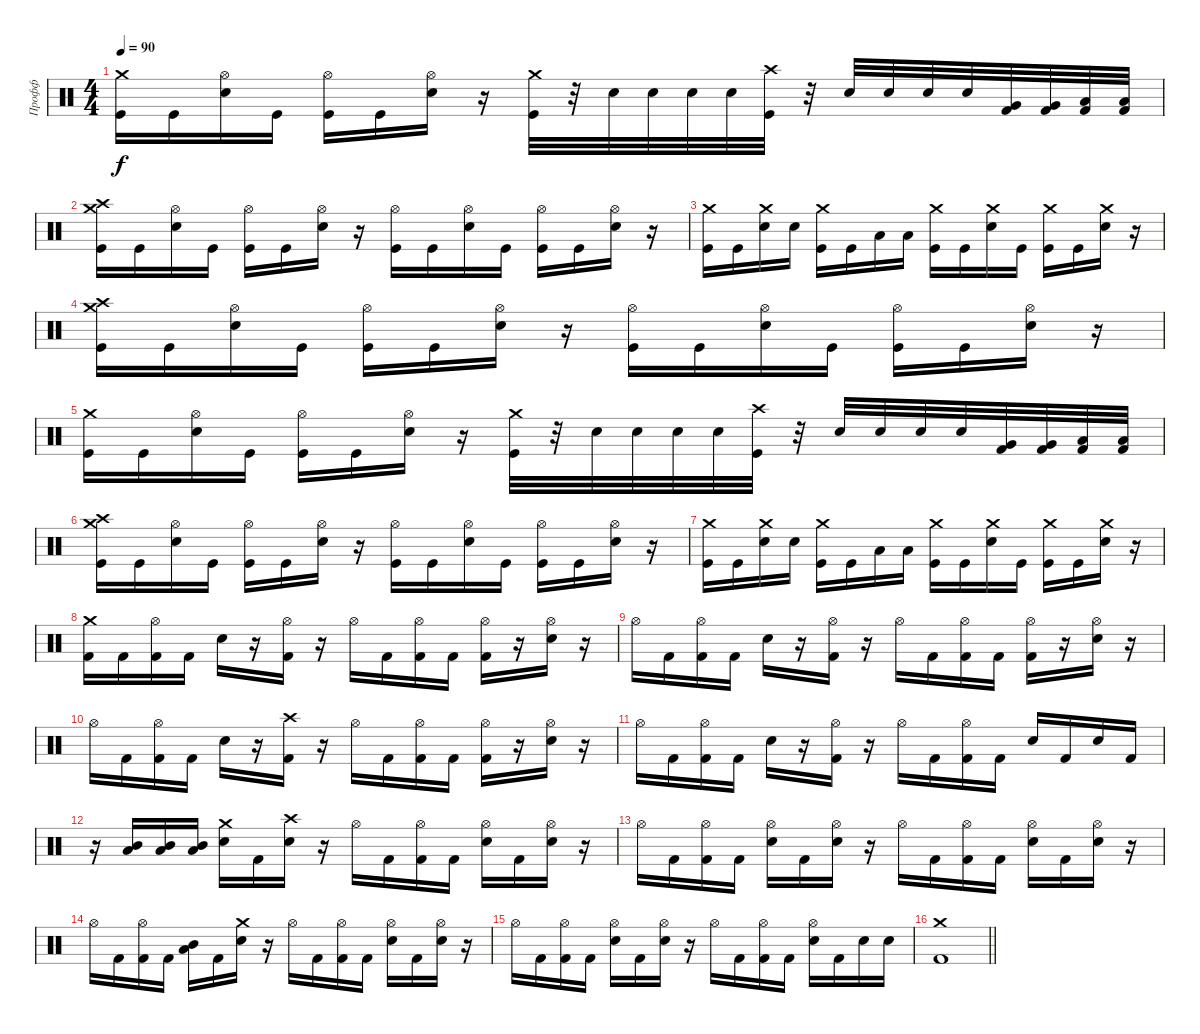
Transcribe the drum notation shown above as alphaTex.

\track ("Профф" "Профф") {instrument percussion}
\staff {score}
\articulation defaults
\ts (4 4)
\tempo 90
\clef neutral
\ks c
("Kick (hit)" "Crash medium (hit)").16{dy f} "Kick (hit)".16 ("Electric Snare (hit)" "Hi-Hat (open)").16 "Kick (hit)".16 ("Kick (hit)" "Hi-Hat (open)").16 "Kick (hit)".16 ("Electric Snare (hit)" "Hi-Hat (open)").16 r.16 ("Kick (hit)" "Crash medium (hit)").32 r.32 "Electric Snare (hit)".32 "Electric Snare (hit)".32 "Electric Snare (hit)".32 "Electric Snare (hit)".32 ("Kick (hit)" "Crash high (hit)").32 r.32 "Electric Snare (hit)".32 "Electric Snare (hit)".32 "Electric Snare (hit)".32 "Electric Snare (hit)".32 ("Very Low Tom (hit)" "Kick (hit) 2").32 ("Very Low Tom (hit)" "Kick (hit) 2").32 ("Low Floor Tom (hit)" "Kick (hit) 2").32 ("Low Floor Tom (hit)" "Kick (hit) 2").32 |
("Kick (hit)" "Crash high (hit)" "Crash medium (hit)").16 "Kick (hit)".16 ("Electric Snare (hit)" "Hi-Hat (open)").16 "Kick (hit)".16 ("Kick (hit)" "Hi-Hat (open)").16 "Kick (hit)".16 ("Electric Snare (hit)" "Hi-Hat (open)").16 r.16 ("Kick (hit)" "Hi-Hat (open)").16 "Kick (hit)".16 ("Electric Snare (hit)" "Hi-Hat (open)").16 "Kick (hit)".16 ("Kick (hit)" "Hi-Hat (open)").16 "Kick (hit)".16 ("Electric Snare (hit)" "Hi-Hat (open)").16 r.16 |
("Kick (hit)" "Crash medium (hit)").16 "Kick (hit)".16 ("Electric Snare (hit)" "Crash medium (hit)").16 "Electric Snare (hit)".16 ("Kick (hit)" "Crash medium (hit)").16 "Kick (hit)".16 "Low Tom (hit)".16 "Low Tom (hit)".16 ("Kick (hit)" "Crash medium (hit)").16 "Kick (hit)".16 ("Electric Snare (hit)" "Crash medium (hit)").16 "Kick (hit)".16 ("Kick (hit)" "Crash medium (hit)").16 "Kick (hit)".16 ("Electric Snare (hit)" "Crash medium (hit)").16 r.16 |
("Kick (hit)" "Crash high (hit)" "Crash medium (hit)").16 "Kick (hit)".16 ("Electric Snare (hit)" "Hi-Hat (open)").16 "Kick (hit)".16 ("Kick (hit)" "Hi-Hat (open)").16 "Kick (hit)".16 ("Electric Snare (hit)" "Hi-Hat (open)").16 r.16 ("Kick (hit)" "Hi-Hat (open)").16 "Kick (hit)".16 ("Electric Snare (hit)" "Hi-Hat (open)").16 "Kick (hit)".16 ("Kick (hit)" "Hi-Hat (open)").16 "Kick (hit)".16 ("Electric Snare (hit)" "Hi-Hat (open)").16 r.16 |
("Kick (hit)" "Crash medium (hit)").16 "Kick (hit)".16 ("Electric Snare (hit)" "Hi-Hat (open)").16 "Kick (hit)".16 ("Kick (hit)" "Hi-Hat (open)").16 "Kick (hit)".16 ("Electric Snare (hit)" "Hi-Hat (open)").16 r.16 ("Kick (hit)" "Crash medium (hit)").32 r.32 "Electric Snare (hit)".32 "Electric Snare (hit)".32 "Electric Snare (hit)".32 "Electric Snare (hit)".32 ("Kick (hit)" "Crash high (hit)").32 r.32 "Electric Snare (hit)".32 "Electric Snare (hit)".32 "Electric Snare (hit)".32 "Electric Snare (hit)".32 ("Very Low Tom (hit)" "Kick (hit) 2").32 ("Very Low Tom (hit)" "Kick (hit) 2").32 ("Low Floor Tom (hit)" "Kick (hit) 2").32 ("Low Floor Tom (hit)" "Kick (hit) 2").32 |
("Kick (hit)" "Crash high (hit)" "Crash medium (hit)").16 "Kick (hit)".16 ("Electric Snare (hit)" "Hi-Hat (open)").16 "Kick (hit)".16 ("Kick (hit)" "Hi-Hat (open)").16 "Kick (hit)".16 ("Electric Snare (hit)" "Hi-Hat (open)").16 r.16 ("Kick (hit)" "Hi-Hat (open)").16 "Kick (hit)".16 ("Electric Snare (hit)" "Hi-Hat (open)").16 "Kick (hit)".16 ("Kick (hit)" "Hi-Hat (open)").16 "Kick (hit)".16 ("Electric Snare (hit)" "Hi-Hat (open)").16 r.16 |
("Kick (hit)" "Crash medium (hit)").16 "Kick (hit)".16 ("Electric Snare (hit)" "Crash medium (hit)").16 "Electric Snare (hit)".16 ("Kick (hit)" "Crash medium (hit)").16 "Kick (hit)".16 "Low Tom (hit)".16 "Low Tom (hit)".16 ("Kick (hit)" "Crash medium (hit)").16 "Kick (hit)".16 ("Electric Snare (hit)" "Crash medium (hit)").16 "Kick (hit)".16 ("Kick (hit)" "Crash medium (hit)").16 "Kick (hit)".16 ("Electric Snare (hit)" "Crash medium (hit)").16 r.16 |
("Kick (hit) 2" "Crash medium (hit)").16 "Kick (hit) 2".16 ("Kick (hit) 2" "Hi-Hat (open)").16 "Kick (hit) 2".16 "Electric Snare (hit)".16 r.16 ("Kick (hit) 2" "Hi-Hat (open)").16 r.16 "Hi-Hat (open)".16 "Kick (hit) 2".16 ("Kick (hit) 2" "Hi-Hat (open)").16 "Kick (hit) 2".16 ("Kick (hit) 2" "Hi-Hat (open)").16 r.16 ("Electric Snare (hit)" "Hi-Hat (open)").16 r.16 |
"Hi-Hat (open)".16 "Kick (hit) 2".16 ("Kick (hit) 2" "Hi-Hat (open)").16 "Kick (hit) 2".16 "Electric Snare (hit)".16 r.16 ("Kick (hit) 2" "Hi-Hat (open)").16 r.16 "Hi-Hat (open)".16 "Kick (hit) 2".16 ("Kick (hit) 2" "Hi-Hat (open)").16 "Kick (hit) 2".16 ("Kick (hit) 2" "Hi-Hat (open)").16 r.16 ("Electric Snare (hit)" "Hi-Hat (open)").16 r.16 |
"Hi-Hat (open)".16 "Kick (hit) 2".16 ("Kick (hit) 2" "Hi-Hat (open)").16 "Kick (hit) 2".16 "Electric Snare (hit)".16 r.16 ("Kick (hit) 2" "Crash high (hit)").16 r.16 "Hi-Hat (open)".16 "Kick (hit) 2".16 ("Kick (hit) 2" "Hi-Hat (open)").16 "Kick (hit) 2".16 ("Kick (hit) 2" "Hi-Hat (open)").16 r.16 ("Electric Snare (hit)" "Hi-Hat (open)").16 r.16 |
"Hi-Hat (open)".16 "Kick (hit) 2".16 ("Kick (hit) 2" "Hi-Hat (open)").16 "Kick (hit) 2".16 "Electric Snare (hit)".16 r.16 ("Kick (hit) 2" "Hi-Hat (open)").16 r.16 "Hi-Hat (open)".16 "Kick (hit) 2".16 ("Kick (hit) 2" "Hi-Hat (open)").16 "Kick (hit) 2".16 "Electric Snare (hit)".16 "Kick (hit) 2".16 "Electric Snare (hit)".16 "Kick (hit) 2".16 |
r.16 ("Mid Tom (hit)" "Low Tom (hit)").16 ("Mid Tom (hit)" "Low Tom (hit)").16 ("Mid Tom (hit)" "Low Tom (hit)").16 ("Electric Snare (hit)" "Crash medium (hit)").16 "Kick (hit) 2".16 ("Electric Snare (hit)" "Crash high (hit)").16 r.16 "Hi-Hat (open)".16 "Kick (hit) 2".16 ("Kick (hit) 2" "Hi-Hat (open)").16 "Kick (hit) 2".16 ("Electric Snare (hit)" "Hi-Hat (open)").16 "Kick (hit) 2".16 ("Electric Snare (hit)" "Hi-Hat (open)").16 r.16 |
"Hi-Hat (open)".16 "Kick (hit) 2".16 ("Kick (hit) 2" "Hi-Hat (open)").16 "Kick (hit) 2".16 ("Electric Snare (hit)" "Hi-Hat (open)").16 "Kick (hit) 2".16 ("Electric Snare (hit)" "Hi-Hat (open)").16 r.16 "Hi-Hat (open)".16 "Kick (hit) 2".16 ("Kick (hit) 2" "Hi-Hat (open)").16 "Kick (hit) 2".16 ("Electric Snare (hit)" "Hi-Hat (open)").16 "Kick (hit) 2".16 ("Electric Snare (hit)" "Hi-Hat (open)").16 r.16 |
"Hi-Hat (open)".16 "Kick (hit) 2".16 ("Kick (hit) 2" "Hi-Hat (open)").16 "Kick (hit) 2".16 ("Low Tom (hit)" "Mid Tom (hit)").16 "Kick (hit) 2".16 ("Electric Snare (hit)" "Crash medium (hit)").16 r.16 "Hi-Hat (open)".16 "Kick (hit) 2".16 ("Kick (hit) 2" "Hi-Hat (open)").16 "Kick (hit) 2".16 ("Electric Snare (hit)" "Hi-Hat (open)").16 "Kick (hit) 2".16 ("Electric Snare (hit)" "Hi-Hat (open)").16 r.16 |
"Hi-Hat (open)".16 "Kick (hit) 2".16 ("Kick (hit) 2" "Hi-Hat (open)").16 "Kick (hit) 2".16 ("Electric Snare (hit)" "Hi-Hat (open)").16 "Kick (hit) 2".16 ("Electric Snare (hit)" "Hi-Hat (open)").16 r.16 "Hi-Hat (open)".16 "Kick (hit) 2".16 ("Kick (hit) 2" "Hi-Hat (open)").16 "Kick (hit) 2".16 ("Electric Snare (hit)" "Hi-Hat (open)").16 "Kick (hit) 2".16 "Electric Snare (hit)".16 "Electric Snare (hit)".16 |
\barLineRight lightlight
("Kick (hit) 2" "Crash medium (hit)").1
